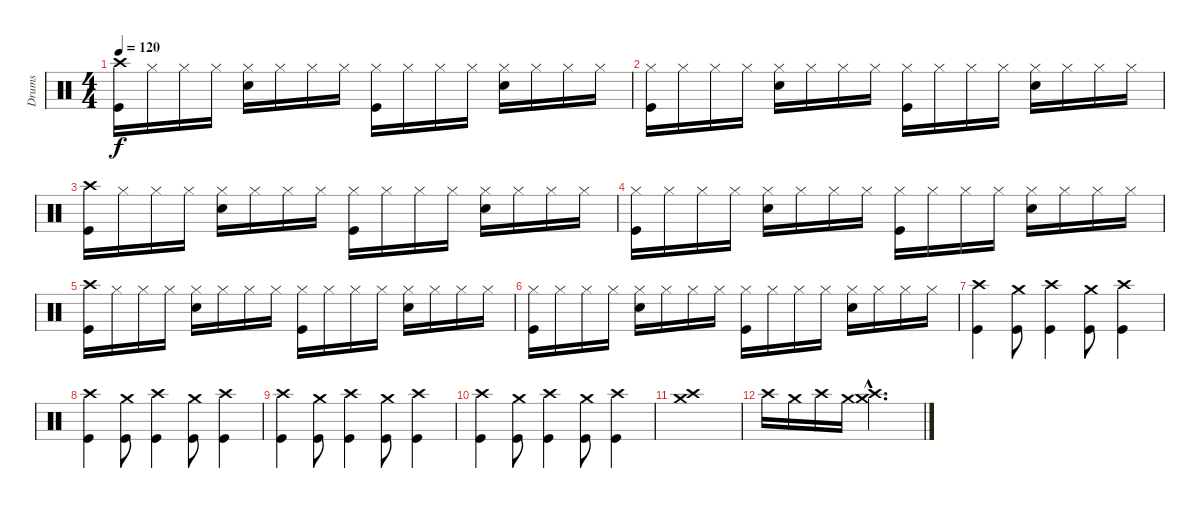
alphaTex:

\track ("Drums" "Drums") {instrument percussion}
\staff {score}
\articulation defaults
\ts (4 4)
\tempo 120
\clef neutral
\ks c
("Crash high (hit)" "Kick (hit)").16{dy f} "Hi-Hat (closed)".16 "Hi-Hat (closed)".16 "Hi-Hat (closed)".16 ("Hi-Hat (closed)" "Electric Snare (hit)").16 "Hi-Hat (closed)".16 "Hi-Hat (closed)".16 "Hi-Hat (closed)".16 ("Hi-Hat (closed)" "Kick (hit)").16 "Hi-Hat (closed)".16 "Hi-Hat (closed)".16 "Hi-Hat (closed)".16 ("Hi-Hat (closed)" "Electric Snare (hit)").16 "Hi-Hat (closed)".16 "Hi-Hat (closed)".16 "Hi-Hat (closed)".16 |
("Hi-Hat (closed)" "Kick (hit)").16 "Hi-Hat (closed)".16 "Hi-Hat (closed)".16 "Hi-Hat (closed)".16 ("Hi-Hat (closed)" "Electric Snare (hit)").16 "Hi-Hat (closed)".16 "Hi-Hat (closed)".16 "Hi-Hat (closed)".16 ("Hi-Hat (closed)" "Kick (hit)").16 "Hi-Hat (closed)".16 "Hi-Hat (closed)".16 "Hi-Hat (closed)".16 ("Hi-Hat (closed)" "Electric Snare (hit)").16 "Hi-Hat (closed)".16 "Hi-Hat (closed)".16 "Hi-Hat (closed)".16 |
("Crash high (hit)" "Kick (hit)").16 "Hi-Hat (closed)".16 "Hi-Hat (closed)".16 "Hi-Hat (closed)".16 ("Hi-Hat (closed)" "Electric Snare (hit)").16 "Hi-Hat (closed)".16 "Hi-Hat (closed)".16 "Hi-Hat (closed)".16 ("Hi-Hat (closed)" "Kick (hit)").16 "Hi-Hat (closed)".16 "Hi-Hat (closed)".16 "Hi-Hat (closed)".16 ("Hi-Hat (closed)" "Electric Snare (hit)").16 "Hi-Hat (closed)".16 "Hi-Hat (closed)".16 "Hi-Hat (closed)".16 |
("Hi-Hat (closed)" "Kick (hit)").16 "Hi-Hat (closed)".16 "Hi-Hat (closed)".16 "Hi-Hat (closed)".16 ("Hi-Hat (closed)" "Electric Snare (hit)").16 "Hi-Hat (closed)".16 "Hi-Hat (closed)".16 "Hi-Hat (closed)".16 ("Hi-Hat (closed)" "Kick (hit)").16 "Hi-Hat (closed)".16 "Hi-Hat (closed)".16 "Hi-Hat (closed)".16 ("Hi-Hat (closed)" "Electric Snare (hit)").16 "Hi-Hat (closed)".16 "Hi-Hat (closed)".16 "Hi-Hat (closed)".16 |
("Crash high (hit)" "Kick (hit)").16 "Hi-Hat (closed)".16 "Hi-Hat (closed)".16 "Hi-Hat (closed)".16 ("Hi-Hat (closed)" "Electric Snare (hit)").16 "Hi-Hat (closed)".16 "Hi-Hat (closed)".16 "Hi-Hat (closed)".16 ("Hi-Hat (closed)" "Kick (hit)").16 "Hi-Hat (closed)".16 "Hi-Hat (closed)".16 "Hi-Hat (closed)".16 ("Hi-Hat (closed)" "Electric Snare (hit)").16 "Hi-Hat (closed)".16 "Hi-Hat (closed)".16 "Hi-Hat (closed)".16 |
("Hi-Hat (closed)" "Kick (hit)").16 "Hi-Hat (closed)".16 "Hi-Hat (closed)".16 "Hi-Hat (closed)".16 ("Hi-Hat (closed)" "Electric Snare (hit)").16 "Hi-Hat (closed)".16 "Hi-Hat (closed)".16 "Hi-Hat (closed)".16 ("Hi-Hat (closed)" "Kick (hit)").16 "Hi-Hat (closed)".16 "Hi-Hat (closed)".16 "Hi-Hat (closed)".16 ("Hi-Hat (closed)" "Electric Snare (hit)").16 "Hi-Hat (closed)".16 "Hi-Hat (closed)".16 "Hi-Hat (closed)".16 |
("Crash high (hit)" "Kick (hit)").4 ("Crash medium (hit)" "Kick (hit)").8 ("Crash high (hit)" "Kick (hit)").4 ("Crash medium (hit)" "Kick (hit)").8 ("Crash high (hit)" "Kick (hit)").4 |
("Crash high (hit)" "Kick (hit)").4 ("Crash medium (hit)" "Kick (hit)").8 ("Crash high (hit)" "Kick (hit)").4 ("Crash medium (hit)" "Kick (hit)").8 ("Crash high (hit)" "Kick (hit)").4 |
("Crash high (hit)" "Kick (hit)").4 ("Crash medium (hit)" "Kick (hit)").8 ("Crash high (hit)" "Kick (hit)").4 ("Crash medium (hit)" "Kick (hit)").8 ("Crash high (hit)" "Kick (hit)").4 |
("Crash high (hit)" "Kick (hit)").4 ("Crash medium (hit)" "Kick (hit)").8 ("Crash high (hit)" "Kick (hit)").4 ("Crash medium (hit)" "Kick (hit)").8 ("Crash high (hit)" "Kick (hit)").4 |
("Crash medium (hit)" "Crash high (hit)").1 |
"Crash high (hit)".16 "Crash medium (hit)".16 "Crash high (hit)".16 "Crash medium (hit)".16 ("Crash medium (hit)"{hac} "Crash high (hit)"{hac}).2{d}
